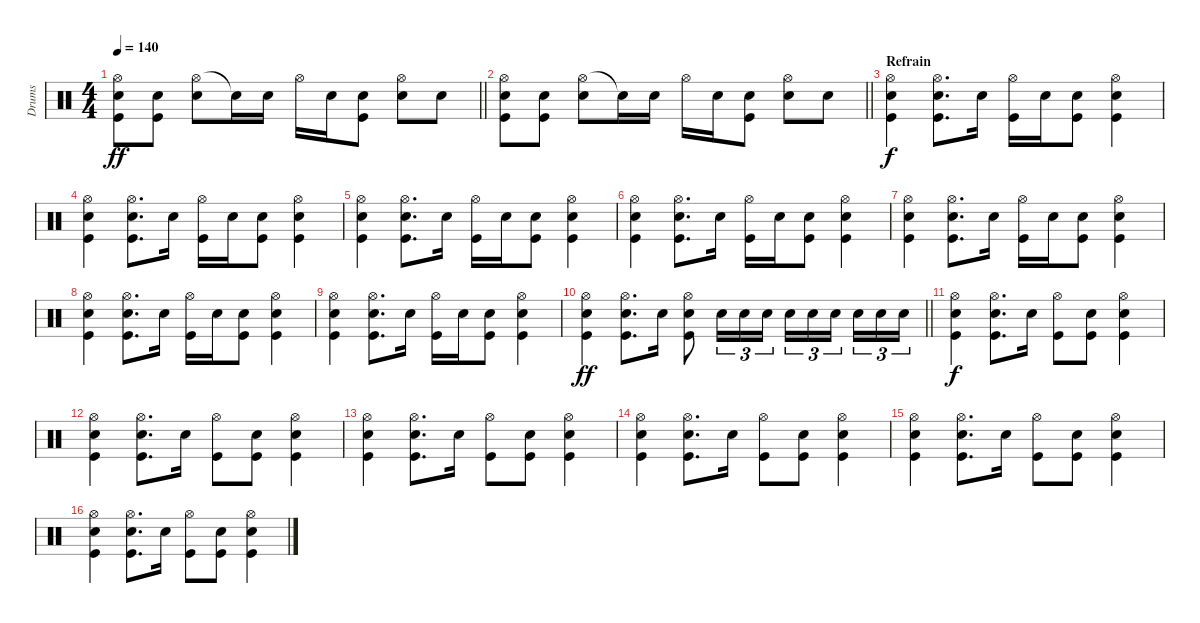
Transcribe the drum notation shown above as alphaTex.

\track ("Drums" "Drums") {instrument percussion}
\staff {score}
\articulation defaults
\ts (4 4)
\tempo 140
\clef neutral
\barLineRight lightlight
\ks c
("Hi-Hat (open)" "Kick (hit)" "Snare (hit) 2").8{dy ff} ("Kick (hit)" "Snare (hit) 2").8 ("Hi-Hat (open)" "Snare (hit) 2").8 "Snare (hit) 2"{t}.16 "Snare (hit) 2".16 "Hi-Hat (open)".16 "Snare (hit) 2".16 ("Kick (hit)" "Snare (hit) 2").8 ("Hi-Hat (open)" "Snare (hit) 2").8 "Snare (hit) 2".8 |
\barLineRight lightlight
("Hi-Hat (open)" "Kick (hit)" "Snare (hit) 2").8 ("Kick (hit)" "Snare (hit) 2").8 ("Hi-Hat (open)" "Snare (hit) 2").8 "Snare (hit) 2"{t}.16 "Snare (hit) 2".16 "Hi-Hat (open)".16 "Snare (hit) 2".16 ("Kick (hit)" "Snare (hit) 2").8 ("Hi-Hat (open)" "Snare (hit) 2").8 "Snare (hit) 2".8 |
\section ("" "Refrain")
("Hi-Hat (open)" "Kick (hit)" "Snare (hit) 2").4{dy f} ("Hi-Hat (open)" "Kick (hit)" "Snare (hit) 2").8{d} "Snare (hit) 2".16 ("Hi-Hat (open)" "Kick (hit)").16 "Snare (hit) 2".16 ("Kick (hit)" "Snare (hit) 2").8 ("Hi-Hat (open)" "Kick (hit)" "Snare (hit) 2").4 |
("Hi-Hat (open)" "Kick (hit)" "Snare (hit) 2").4 ("Hi-Hat (open)" "Kick (hit)" "Snare (hit) 2").8{d} "Snare (hit) 2".16 ("Hi-Hat (open)" "Kick (hit)").16 "Snare (hit) 2".16 ("Kick (hit)" "Snare (hit) 2").8 ("Hi-Hat (open)" "Kick (hit)" "Snare (hit) 2").4 |
("Hi-Hat (open)" "Kick (hit)" "Snare (hit) 2").4 ("Hi-Hat (open)" "Kick (hit)" "Snare (hit) 2").8{d} "Snare (hit) 2".16 ("Hi-Hat (open)" "Kick (hit)").16 "Snare (hit) 2".16 ("Kick (hit)" "Snare (hit) 2").8 ("Hi-Hat (open)" "Kick (hit)" "Snare (hit) 2").4 |
("Hi-Hat (open)" "Kick (hit)" "Snare (hit) 2").4 ("Hi-Hat (open)" "Kick (hit)" "Snare (hit) 2").8{d} "Snare (hit) 2".16 ("Hi-Hat (open)" "Kick (hit)").16 "Snare (hit) 2".16 ("Kick (hit)" "Snare (hit) 2").8 ("Hi-Hat (open)" "Kick (hit)" "Snare (hit) 2").4 |
("Hi-Hat (open)" "Kick (hit)" "Snare (hit) 2").4 ("Hi-Hat (open)" "Kick (hit)" "Snare (hit) 2").8{d} "Snare (hit) 2".16 ("Hi-Hat (open)" "Kick (hit)").16 "Snare (hit) 2".16 ("Kick (hit)" "Snare (hit) 2").8 ("Hi-Hat (open)" "Kick (hit)" "Snare (hit) 2").4 |
("Hi-Hat (open)" "Kick (hit)" "Snare (hit) 2").4 ("Hi-Hat (open)" "Kick (hit)" "Snare (hit) 2").8{d} "Snare (hit) 2".16 ("Hi-Hat (open)" "Kick (hit)").16 "Snare (hit) 2".16 ("Kick (hit)" "Snare (hit) 2").8 ("Hi-Hat (open)" "Kick (hit)" "Snare (hit) 2").4 |
("Hi-Hat (open)" "Kick (hit)" "Snare (hit) 2").4 ("Hi-Hat (open)" "Kick (hit)" "Snare (hit) 2").8{d} "Snare (hit) 2".16 ("Hi-Hat (open)" "Kick (hit)").16 "Snare (hit) 2".16 ("Kick (hit)" "Snare (hit) 2").8 ("Hi-Hat (open)" "Kick (hit)" "Snare (hit) 2").4 |
\barLineRight lightlight
("Hi-Hat (open)" "Kick (hit)" "Snare (hit) 2").4{dy ff} ("Hi-Hat (open)" "Kick (hit)" "Snare (hit) 2").8{d} "Snare (hit) 2".16 ("Hi-Hat (open)" "Kick (hit)" "Snare (hit) 2").8 "Snare (hit) 2".16{tu (3 2)} "Snare (hit) 2".16{tu (3 2)} "Snare (hit) 2".16{tu (3 2)} "Snare (hit) 2".16{tu (3 2)} "Snare (hit) 2".16{tu (3 2)} "Snare (hit) 2".16{tu (3 2) beam splitsecondary} "Snare (hit) 2".16{tu (3 2)} "Snare (hit) 2".16{tu (3 2)} "Snare (hit) 2".16{tu (3 2)} |
("Hi-Hat (open)" "Kick (hit)" "Snare (hit) 2").4{dy f} ("Hi-Hat (open)" "Kick (hit)" "Snare (hit) 2").8{d} "Snare (hit) 2".16 ("Hi-Hat (open)" "Kick (hit)").8 ("Kick (hit)" "Snare (hit) 2").8 ("Hi-Hat (open)" "Kick (hit)" "Snare (hit) 2").4 |
("Hi-Hat (open)" "Kick (hit)" "Snare (hit) 2").4 ("Hi-Hat (open)" "Kick (hit)" "Snare (hit) 2").8{d} "Snare (hit) 2".16 ("Hi-Hat (open)" "Kick (hit)").8 ("Kick (hit)" "Snare (hit) 2").8 ("Hi-Hat (open)" "Kick (hit)" "Snare (hit) 2").4 |
("Hi-Hat (open)" "Kick (hit)" "Snare (hit) 2").4 ("Hi-Hat (open)" "Kick (hit)" "Snare (hit) 2").8{d} "Snare (hit) 2".16 ("Hi-Hat (open)" "Kick (hit)").8 ("Kick (hit)" "Snare (hit) 2").8 ("Hi-Hat (open)" "Kick (hit)" "Snare (hit) 2").4 |
("Hi-Hat (open)" "Kick (hit)" "Snare (hit) 2").4 ("Hi-Hat (open)" "Kick (hit)" "Snare (hit) 2").8{d} "Snare (hit) 2".16 ("Hi-Hat (open)" "Kick (hit)").8 ("Kick (hit)" "Snare (hit) 2").8 ("Hi-Hat (open)" "Kick (hit)" "Snare (hit) 2").4 |
("Hi-Hat (open)" "Kick (hit)" "Snare (hit) 2").4 ("Hi-Hat (open)" "Kick (hit)" "Snare (hit) 2").8{d} "Snare (hit) 2".16 ("Hi-Hat (open)" "Kick (hit)").8 ("Kick (hit)" "Snare (hit) 2").8 ("Hi-Hat (open)" "Kick (hit)" "Snare (hit) 2").4 |
("Hi-Hat (open)" "Kick (hit)" "Snare (hit) 2").4 ("Hi-Hat (open)" "Kick (hit)" "Snare (hit) 2").8{d} "Snare (hit) 2".16 ("Hi-Hat (open)" "Kick (hit)").8 ("Kick (hit)" "Snare (hit) 2").8 ("Hi-Hat (open)" "Kick (hit)" "Snare (hit) 2").4
